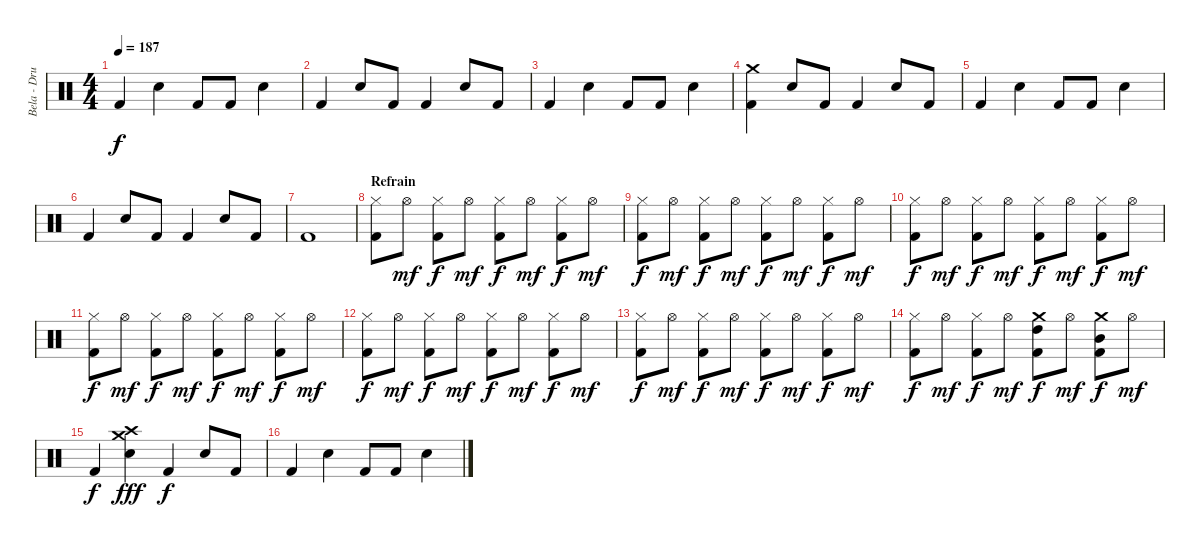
\track ("Bela - Drums" "Bela - Dru") {instrument percussion}
\staff {score}
\articulation defaults
\ts (4 4)
\tempo 187
\clef neutral
\ks c "Kick (hit) 2".4{dy f} "Snare (hit) 2".4 "Kick (hit) 2".8 "Kick (hit) 2".8 "Snare (hit) 2".4
|
"Kick (hit) 2".4 "Snare (hit) 2".8 "Kick (hit) 2".8 "Kick (hit) 2".4 "Snare (hit) 2".8 "Kick (hit) 2".8 |
"Kick (hit) 2".4 "Snare (hit) 2".4 "Kick (hit) 2".8 "Kick (hit) 2".8 "Snare (hit) 2".4 |
("Crash medium (hit)" "Kick (hit) 2").4 "Snare (hit) 2".8 "Kick (hit) 2".8 "Kick (hit) 2".4 "Snare (hit) 2".8 "Kick (hit) 2".8 |
"Kick (hit) 2".4 "Snare (hit) 2".4 "Kick (hit) 2".8 "Kick (hit) 2".8 "Snare (hit) 2".4 |
"Kick (hit) 2".4 "Snare (hit) 2".8 "Kick (hit) 2".8 "Kick (hit) 2".4 "Snare (hit) 2".8 "Kick (hit) 2".8 |
"Kick (hit) 2".1 |
\section ("" "Refrain")
("Hi-Hat (closed)" "Kick (hit) 2").8 "Hi-Hat (open)".8{dy mf} ("Hi-Hat (closed)" "Kick (hit) 2").8{dy f} "Hi-Hat (open)".8{dy mf} ("Hi-Hat (closed)" "Kick (hit) 2").8{dy f} "Hi-Hat (open)".8{dy mf} ("Hi-Hat (closed)" "Kick (hit) 2").8{dy f} "Hi-Hat (open)".8{dy mf} |
("Hi-Hat (closed)" "Kick (hit) 2").8{dy f} "Hi-Hat (open)".8{dy mf} ("Hi-Hat (closed)" "Kick (hit) 2").8{dy f} "Hi-Hat (open)".8{dy mf} ("Hi-Hat (closed)" "Kick (hit) 2").8{dy f} "Hi-Hat (open)".8{dy mf} ("Hi-Hat (closed)" "Kick (hit) 2").8{dy f} "Hi-Hat (open)".8{dy mf} |
("Hi-Hat (closed)" "Kick (hit) 2").8{dy f} "Hi-Hat (open)".8{dy mf} ("Hi-Hat (closed)" "Kick (hit) 2").8{dy f} "Hi-Hat (open)".8{dy mf} ("Hi-Hat (closed)" "Kick (hit) 2").8{dy f} "Hi-Hat (open)".8{dy mf} ("Hi-Hat (closed)" "Kick (hit) 2").8{dy f} "Hi-Hat (open)".8{dy mf} |
("Hi-Hat (closed)" "Kick (hit) 2").8{dy f} "Hi-Hat (open)".8{dy mf} ("Hi-Hat (closed)" "Kick (hit) 2").8{dy f} "Hi-Hat (open)".8{dy mf} ("Hi-Hat (closed)" "Kick (hit) 2").8{dy f} "Hi-Hat (open)".8{dy mf} ("Hi-Hat (closed)" "Kick (hit) 2").8{dy f} "Hi-Hat (open)".8{dy mf} |
("Hi-Hat (closed)" "Kick (hit) 2").8{dy f} "Hi-Hat (open)".8{dy mf} ("Hi-Hat (closed)" "Kick (hit) 2").8{dy f} "Hi-Hat (open)".8{dy mf} ("Hi-Hat (closed)" "Kick (hit) 2").8{dy f} "Hi-Hat (open)".8{dy mf} ("Hi-Hat (closed)" "Kick (hit) 2").8{dy f} "Hi-Hat (open)".8{dy mf} |
("Hi-Hat (closed)" "Kick (hit) 2").8{dy f} "Hi-Hat (open)".8{dy mf} ("Hi-Hat (closed)" "Kick (hit) 2").8{dy f} "Hi-Hat (open)".8{dy mf} ("Hi-Hat (closed)" "Kick (hit) 2").8{dy f} "Hi-Hat (open)".8{dy mf} ("Hi-Hat (closed)" "Kick (hit) 2").8{dy f} "Hi-Hat (open)".8{dy mf} |
("Hi-Hat (closed)" "Kick (hit) 2").8{dy f} "Hi-Hat (open)".8{dy mf} ("Hi-Hat (closed)" "Kick (hit) 2").8{dy f} "Hi-Hat (open)".8{dy mf} ("Crash medium (hit)" "High Tom (hit)" "Kick (hit) 2").8{dy f} "Hi-Hat (open)".8{dy mf} ("Crash medium (hit)" "Mid Tom (hit)" "Kick (hit) 2").8{dy f} "Hi-Hat (open)".8{dy mf} |
"Kick (hit) 2".4{dy f} ("Crash medium (hit)" "Crash high (hit)" "Snare (hit) 2").4{dy fff} "Kick (hit) 2".4{dy f} "Snare (hit) 2".8 "Kick (hit) 2".8 |
"Kick (hit) 2".4 "Snare (hit) 2".4 "Kick (hit) 2".8 "Kick (hit) 2".8 "Snare (hit) 2".4
